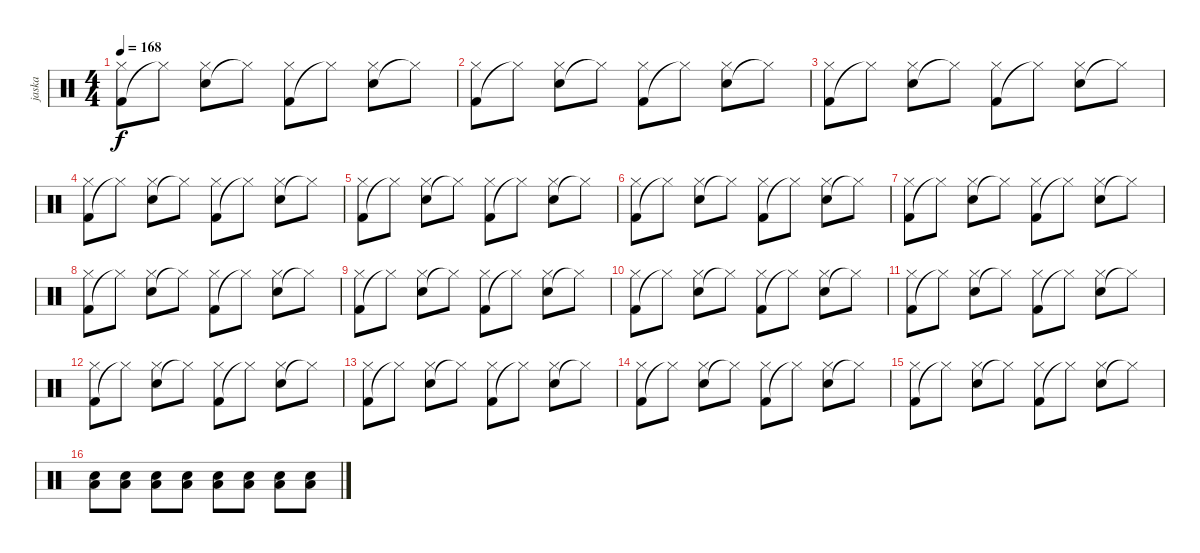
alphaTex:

\track ("jaska" "jaska") {instrument percussion}
\staff
\articulation defaults
\ts (4 4)
\tempo 168
\clef neutral
\ks c
("Kick (hit) 2" "Hi-Hat (closed)").8{dy f} "Hi-Hat (closed)"{t}.8 ("Electric Snare (hit)" "Hi-Hat (closed)").8 "Hi-Hat (closed)"{t}.8 ("Kick (hit) 2" "Hi-Hat (closed)").8 "Hi-Hat (closed)"{t}.8 ("Electric Snare (hit)" "Hi-Hat (closed)").8 "Hi-Hat (closed)"{t}.8 |
("Kick (hit) 2" "Hi-Hat (closed)").8 "Hi-Hat (closed)"{t}.8 ("Electric Snare (hit)" "Hi-Hat (closed)").8 "Hi-Hat (closed)"{t}.8 ("Kick (hit) 2" "Hi-Hat (closed)").8 "Hi-Hat (closed)"{t}.8 ("Electric Snare (hit)" "Hi-Hat (closed)").8 "Hi-Hat (closed)"{t}.8 |
("Kick (hit) 2" "Hi-Hat (closed)").8 "Hi-Hat (closed)"{t}.8 ("Electric Snare (hit)" "Hi-Hat (closed)").8 "Hi-Hat (closed)"{t}.8 ("Kick (hit) 2" "Hi-Hat (closed)").8 "Hi-Hat (closed)"{t}.8 ("Electric Snare (hit)" "Hi-Hat (closed)").8 "Hi-Hat (closed)"{t}.8 |
("Kick (hit) 2" "Hi-Hat (closed)").8 "Hi-Hat (closed)"{t}.8 ("Electric Snare (hit)" "Hi-Hat (closed)").8 "Hi-Hat (closed)"{t}.8 ("Kick (hit) 2" "Hi-Hat (closed)").8 "Hi-Hat (closed)"{t}.8 ("Electric Snare (hit)" "Hi-Hat (closed)").8 "Hi-Hat (closed)"{t}.8 |
("Kick (hit) 2" "Hi-Hat (closed)").8 "Hi-Hat (closed)"{t}.8 ("Electric Snare (hit)" "Hi-Hat (closed)").8 "Hi-Hat (closed)"{t}.8 ("Kick (hit) 2" "Hi-Hat (closed)").8 "Hi-Hat (closed)"{t}.8 ("Electric Snare (hit)" "Hi-Hat (closed)").8 "Hi-Hat (closed)"{t}.8 |
("Kick (hit) 2" "Hi-Hat (closed)").8 "Hi-Hat (closed)"{t}.8 ("Electric Snare (hit)" "Hi-Hat (closed)").8 "Hi-Hat (closed)"{t}.8 ("Kick (hit) 2" "Hi-Hat (closed)").8 "Hi-Hat (closed)"{t}.8 ("Electric Snare (hit)" "Hi-Hat (closed)").8 "Hi-Hat (closed)"{t}.8 |
("Kick (hit) 2" "Hi-Hat (closed)").8 "Hi-Hat (closed)"{t}.8 ("Electric Snare (hit)" "Hi-Hat (closed)").8 "Hi-Hat (closed)"{t}.8 ("Kick (hit) 2" "Hi-Hat (closed)").8 "Hi-Hat (closed)"{t}.8 ("Electric Snare (hit)" "Hi-Hat (closed)").8 "Hi-Hat (closed)"{t}.8 |
("Kick (hit) 2" "Hi-Hat (closed)").8 "Hi-Hat (closed)"{t}.8 ("Electric Snare (hit)" "Hi-Hat (closed)").8 "Hi-Hat (closed)"{t}.8 ("Kick (hit) 2" "Hi-Hat (closed)").8 "Hi-Hat (closed)"{t}.8 ("Electric Snare (hit)" "Hi-Hat (closed)").8 "Hi-Hat (closed)"{t}.8 |
("Kick (hit) 2" "Hi-Hat (closed)").8 "Hi-Hat (closed)"{t}.8 ("Electric Snare (hit)" "Hi-Hat (closed)").8 "Hi-Hat (closed)"{t}.8 ("Kick (hit) 2" "Hi-Hat (closed)").8 "Hi-Hat (closed)"{t}.8 ("Electric Snare (hit)" "Hi-Hat (closed)").8 "Hi-Hat (closed)"{t}.8 |
("Kick (hit) 2" "Hi-Hat (closed)").8 "Hi-Hat (closed)"{t}.8 ("Electric Snare (hit)" "Hi-Hat (closed)").8 "Hi-Hat (closed)"{t}.8 ("Kick (hit) 2" "Hi-Hat (closed)").8 "Hi-Hat (closed)"{t}.8 ("Electric Snare (hit)" "Hi-Hat (closed)").8 "Hi-Hat (closed)"{t}.8 |
("Kick (hit) 2" "Hi-Hat (closed)").8 "Hi-Hat (closed)"{t}.8 ("Electric Snare (hit)" "Hi-Hat (closed)").8 "Hi-Hat (closed)"{t}.8 ("Kick (hit) 2" "Hi-Hat (closed)").8 "Hi-Hat (closed)"{t}.8 ("Electric Snare (hit)" "Hi-Hat (closed)").8 "Hi-Hat (closed)"{t}.8 |
("Kick (hit) 2" "Hi-Hat (closed)").8 "Hi-Hat (closed)"{t}.8 ("Electric Snare (hit)" "Hi-Hat (closed)").8 "Hi-Hat (closed)"{t}.8 ("Kick (hit) 2" "Hi-Hat (closed)").8 "Hi-Hat (closed)"{t}.8 ("Electric Snare (hit)" "Hi-Hat (closed)").8 "Hi-Hat (closed)"{t}.8 |
("Kick (hit) 2" "Hi-Hat (closed)").8 "Hi-Hat (closed)"{t}.8 ("Electric Snare (hit)" "Hi-Hat (closed)").8 "Hi-Hat (closed)"{t}.8 ("Kick (hit) 2" "Hi-Hat (closed)").8 "Hi-Hat (closed)"{t}.8 ("Electric Snare (hit)" "Hi-Hat (closed)").8 "Hi-Hat (closed)"{t}.8 |
("Kick (hit) 2" "Hi-Hat (closed)").8 "Hi-Hat (closed)"{t}.8 ("Electric Snare (hit)" "Hi-Hat (closed)").8 "Hi-Hat (closed)"{t}.8 ("Kick (hit) 2" "Hi-Hat (closed)").8 "Hi-Hat (closed)"{t}.8 ("Electric Snare (hit)" "Hi-Hat (closed)").8 "Hi-Hat (closed)"{t}.8 |
("Kick (hit) 2" "Hi-Hat (closed)").8 "Hi-Hat (closed)"{t}.8 ("Electric Snare (hit)" "Hi-Hat (closed)").8 "Hi-Hat (closed)"{t}.8 ("Kick (hit) 2" "Hi-Hat (closed)").8 "Hi-Hat (closed)"{t}.8 ("Electric Snare (hit)" "Hi-Hat (closed)").8 "Hi-Hat (closed)"{t}.8 |
("Electric Snare (hit)" "Low Tom (hit)").8 ("Electric Snare (hit)" "Low Tom (hit)").8 ("Electric Snare (hit)" "Low Tom (hit)").8 ("Electric Snare (hit)" "Low Tom (hit)").8 ("Electric Snare (hit)" "Low Tom (hit)").8 ("Electric Snare (hit)" "Low Tom (hit)").8 ("Electric Snare (hit)" "Low Tom (hit)").8 ("Electric Snare (hit)" "Low Tom (hit)").8
